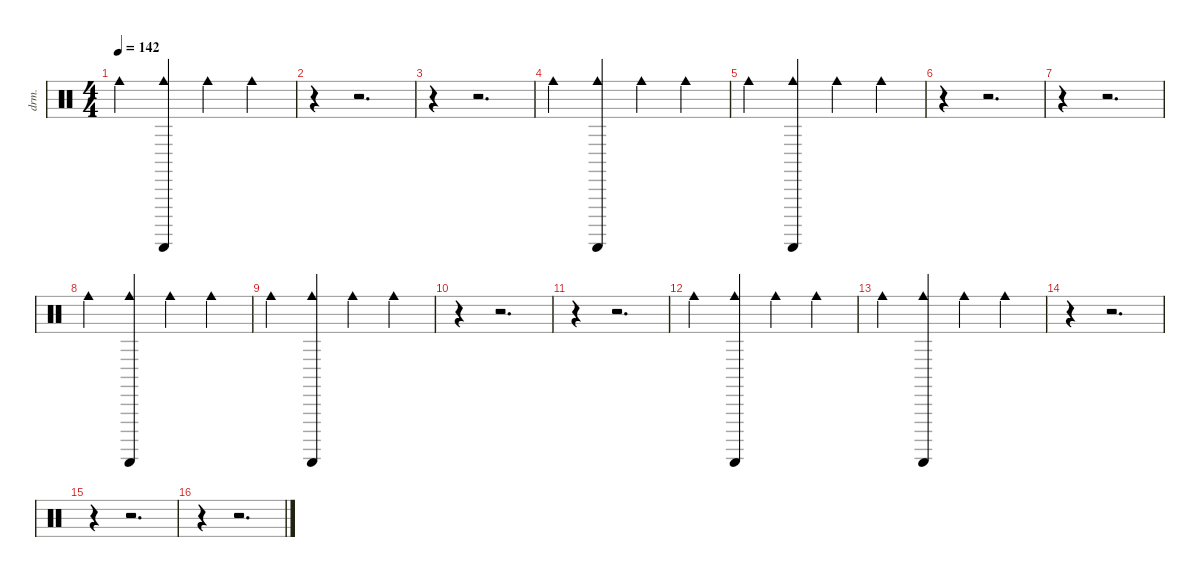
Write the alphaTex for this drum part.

\defaultSystemsLayout 4
\hideDynamics
\bracketExtendMode nobrackets
\otherSystemsTrackNameOrientation horizontal
\track ("Percussion" "drm.") {instrument percussion}
\staff {score}
\articulation defaults
\ts (4 4)
\tempo 142
\clef neutral
\ks c "Cowbell medium (hit)".4{dy mf beam Down}
("Guiro (scrap-return)" "Cowbell medium (hit)").4{dy p beam Up} "Cowbell medium (hit)".4{dy mf beam Down} "Cowbell medium (hit)".4{beam Down} |
r.4{beam Down} r.2{d beam Down} |
r.4{beam Down} r.2{d beam Down} |
"Cowbell medium (hit)".4{beam Down} ("Guiro (scrap-return)" "Cowbell medium (hit)").4{dy p beam Up} "Cowbell medium (hit)".4{dy mf beam Down} "Cowbell medium (hit)".4{beam Down} |
"Cowbell medium (hit)".4{beam Down} ("Guiro (scrap-return)" "Cowbell medium (hit)").4{dy p beam Up} "Cowbell medium (hit)".4{dy mf beam Down} "Cowbell medium (hit)".4{beam Down} |
r.4{beam Down} r.2{d beam Down} |
r.4{beam Down} r.2{d beam Down} |
"Cowbell medium (hit)".4{beam Down} ("Guiro (scrap-return)" "Cowbell medium (hit)").4{dy p beam Up} "Cowbell medium (hit)".4{dy mf beam Down} "Cowbell medium (hit)".4{beam Down} |
"Cowbell medium (hit)".4{beam Down} ("Guiro (scrap-return)" "Cowbell medium (hit)").4{dy p beam Up} "Cowbell medium (hit)".4{dy mf beam Down} "Cowbell medium (hit)".4{beam Down} |
r.4{beam Down} r.2{d beam Down} |
r.4{beam Down} r.2{d beam Down} |
"Cowbell medium (hit)".4{beam Down} ("Guiro (scrap-return)" "Cowbell medium (hit)").4{dy p beam Up} "Cowbell medium (hit)".4{dy mf beam Down} "Cowbell medium (hit)".4{beam Down} |
"Cowbell medium (hit)".4{beam Down} ("Guiro (scrap-return)" "Cowbell medium (hit)").4{dy p beam Up} "Cowbell medium (hit)".4{dy mf beam Down} "Cowbell medium (hit)".4{beam Down} |
r.4{beam Down} r.2{d beam Down} |
r.4{beam Down} r.2{d beam Down} |
r.4{beam Down} r.2{d beam Down}
